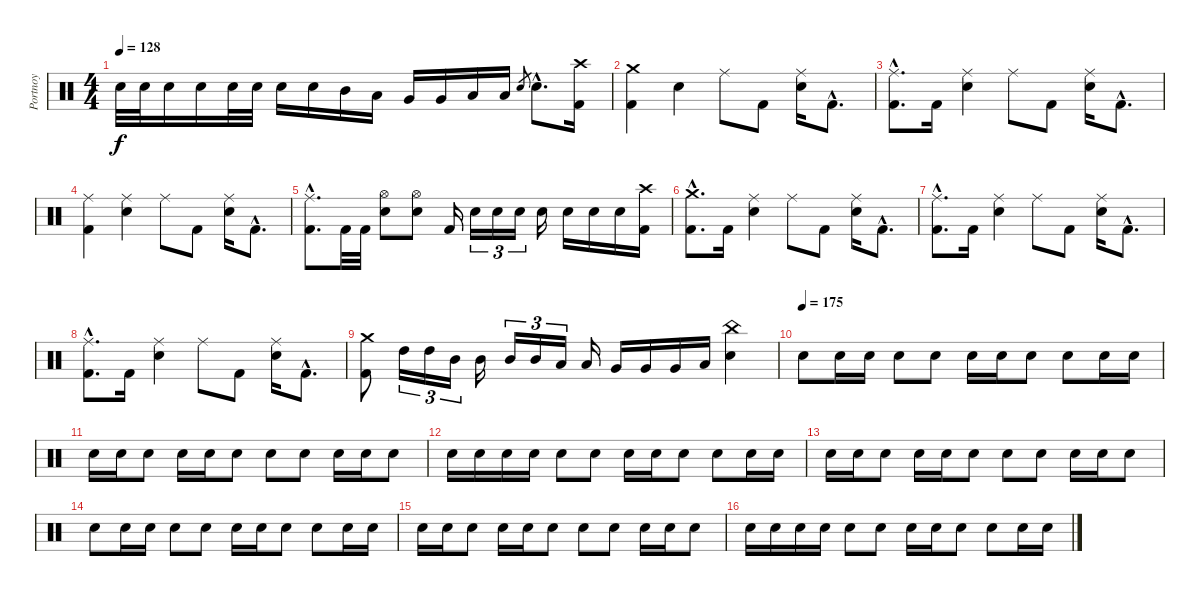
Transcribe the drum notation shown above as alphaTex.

\track ("Portnoy" "Portnoy") {instrument percussion}
\staff {score}
\articulation defaults
\ts (4 4)
\tempo 128
\clef neutral
\ks c "Electric Snare (hit)".32{dy f} "Electric Snare (hit)".32 "Electric Snare (hit)".16 "Electric Snare (hit)".16 "Electric Snare (hit)".32 "Electric Snare (hit)".32 "Electric Snare (hit)".16 "Electric Snare (hit)".16 "Mid Tom (hit)".16 "Low Tom (hit)".16 "Very Low Tom (hit)".16 "Very Low Tom (hit)".16 "Low Floor Tom (hit)".16 "Low Floor Tom (hit)".16 "Electric Snare (hit)".8{gr} "Electric Snare (hit)"{hac}.8{d}
("Kick (hit) 2" "Crash high (hit)").16 |
("Kick (hit) 2" "Crash medium (hit)").4 "Electric Snare (hit)".4 "Ride (middle)".8 "Kick (hit) 2".8 ("Electric Snare (hit)" "Ride (middle)").16 "Kick (hit) 2"{hac}.8{d} |
("Kick (hit) 2"{hac} "Ride (middle)"{hac}).8{d} "Kick (hit) 2".16 ("Electric Snare (hit)" "Ride (middle)").4 "Ride (middle)".8 "Kick (hit) 2".8 ("Electric Snare (hit)" "Ride (middle)").16 "Kick (hit) 2"{hac}.8{d} |
("Kick (hit) 2" "Ride (middle)").4 ("Electric Snare (hit)" "Ride (middle)").4 "Ride (middle)".8 "Kick (hit) 2".8 ("Electric Snare (hit)" "Ride (middle)").16 "Kick (hit) 2"{hac}.8{d} |
("Kick (hit) 2"{hac} "Ride (middle)"{hac}).8{d} "Kick (hit) 2".32 "Kick (hit) 2".32 ("Electric Snare (hit)" "Hi-Hat (open)").8 ("Electric Snare (hit)" "Hi-Hat (open)").8 "Kick (hit) 2".16 "Electric Snare (hit)".16{tu (3 2) volume 13} "Electric Snare (hit)".16{tu (3 2) volume 14} "Electric Snare (hit)".16{tu (3 2) volume 15} "Electric Snare (hit)".16{volume 16} "Electric Snare (hit)".16 "Electric Snare (hit)".16 "Electric Snare (hit)".16 ("Kick (hit) 2" "Crash high (hit)").16 |
("Kick (hit) 2"{hac} "Crash medium (hit)"{hac}).8{d} "Kick (hit) 2".16 ("Electric Snare (hit)" "Ride (middle)").4 "Ride (middle)".8 "Kick (hit) 2".8 ("Electric Snare (hit)" "Ride (middle)").16 "Kick (hit) 2"{hac}.8{d} |
("Kick (hit) 2"{hac} "Ride (middle)"{hac}).8{d} "Kick (hit) 2".16 ("Electric Snare (hit)" "Ride (middle)").4 "Ride (middle)".8 "Kick (hit) 2".8 ("Electric Snare (hit)" "Ride (middle)").16 "Kick (hit) 2"{hac}.8{d} |
("Kick (hit) 2"{hac} "Ride (middle)"{hac}).8{d} "Kick (hit) 2".16 ("Electric Snare (hit)" "Ride (middle)").4 "Ride (middle)".8 "Kick (hit) 2".8 ("Electric Snare (hit)" "Ride (middle)").16 "Kick (hit) 2"{hac}.8{d} |
("Kick (hit) 2" "Crash medium (hit)").8 "High Tom (hit)".16{tu (3 2)} "High Tom (hit)".16{tu (3 2)} "Mid Tom (hit)".16{tu (3 2)} "Mid Tom (hit)".16 "Mid Tom (hit)".16{tu (3 2)} "Mid Tom (hit)".16{tu (3 2)} "Low Tom (hit)".16{tu (3 2)} "Low Tom (hit)".16 "Very Low Tom (hit)".16 "Very Low Tom (hit)".16 "Very Low Tom (hit)".16 "Low Floor Tom (hit)".16 ("Electric Snare (hit)" "China (hit)").4 |
\tempo (175)
"Electric Snare (hit)".8 "Electric Snare (hit)".16 "Electric Snare (hit)".16 "Electric Snare (hit)".8 "Electric Snare (hit)".8 "Electric Snare (hit)".16 "Electric Snare (hit)".16 "Electric Snare (hit)".8 "Electric Snare (hit)".8 "Electric Snare (hit)".16 "Electric Snare (hit)".16 |
"Electric Snare (hit)".16 "Electric Snare (hit)".16 "Electric Snare (hit)".8 "Electric Snare (hit)".16 "Electric Snare (hit)".16 "Electric Snare (hit)".8 "Electric Snare (hit)".8 "Electric Snare (hit)".8 "Electric Snare (hit)".16 "Electric Snare (hit)".16 "Electric Snare (hit)".8 |
"Electric Snare (hit)".16 "Electric Snare (hit)".16 "Electric Snare (hit)".16 "Electric Snare (hit)".16 "Electric Snare (hit)".8 "Electric Snare (hit)".8 "Electric Snare (hit)".16 "Electric Snare (hit)".16 "Electric Snare (hit)".8 "Electric Snare (hit)".8 "Electric Snare (hit)".16 "Electric Snare (hit)".16 |
"Electric Snare (hit)".16 "Electric Snare (hit)".16 "Electric Snare (hit)".8 "Electric Snare (hit)".16 "Electric Snare (hit)".16 "Electric Snare (hit)".8 "Electric Snare (hit)".8 "Electric Snare (hit)".8 "Electric Snare (hit)".16 "Electric Snare (hit)".16 "Electric Snare (hit)".8 |
"Electric Snare (hit)".8 "Electric Snare (hit)".16 "Electric Snare (hit)".16 "Electric Snare (hit)".8 "Electric Snare (hit)".8 "Electric Snare (hit)".16 "Electric Snare (hit)".16 "Electric Snare (hit)".8 "Electric Snare (hit)".8 "Electric Snare (hit)".16 "Electric Snare (hit)".16 |
"Electric Snare (hit)".16 "Electric Snare (hit)".16 "Electric Snare (hit)".8 "Electric Snare (hit)".16 "Electric Snare (hit)".16 "Electric Snare (hit)".8 "Electric Snare (hit)".8 "Electric Snare (hit)".8 "Electric Snare (hit)".16 "Electric Snare (hit)".16 "Electric Snare (hit)".8 |
"Electric Snare (hit)".16 "Electric Snare (hit)".16 "Electric Snare (hit)".16 "Electric Snare (hit)".16 "Electric Snare (hit)".8 "Electric Snare (hit)".8 "Electric Snare (hit)".16 "Electric Snare (hit)".16 "Electric Snare (hit)".8 "Electric Snare (hit)".8 "Electric Snare (hit)".16 "Electric Snare (hit)".16
